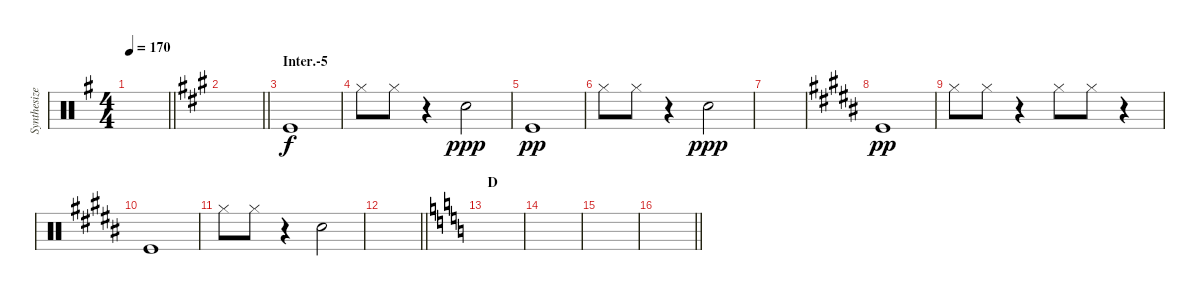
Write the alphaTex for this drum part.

\track ("Synthesizer B" "Synthesize") {instrument percussion}
\staff {score}
\articulation defaults
\ts (4 4)
\tempo 170
\clef neutral
\barLineRight lightlight
\ks g
|
\barLineRight lightlight
\ks a
|
\section ("" "Inter.-5")
"Kick (hit)".1 |
"Hi-Hat (closed)".8 "Hi-Hat (closed)".8 r.4 "Snare (hit) 2".2{dy ppp} |
"Kick (hit)".1{dy pp} |
"Hi-Hat (closed)".8 "Hi-Hat (closed)".8 r.4 "Snare (hit) 2".2{dy ppp} |
|
\ks b "Kick (hit)".1{dy pp}
|
"Hi-Hat (closed)".8 "Hi-Hat (closed)".8 r.4 "Hi-Hat (closed)".8 "Hi-Hat (closed)".8 r.4 |
"Kick (hit)".1 |
"Hi-Hat (closed)".8 "Hi-Hat (closed)".8 r.4 "Snare (hit) 2".2 |
\barLineRight lightlight
|
\section ("" "D")
\ks c
|
|
|
\barLineRight lightlight
